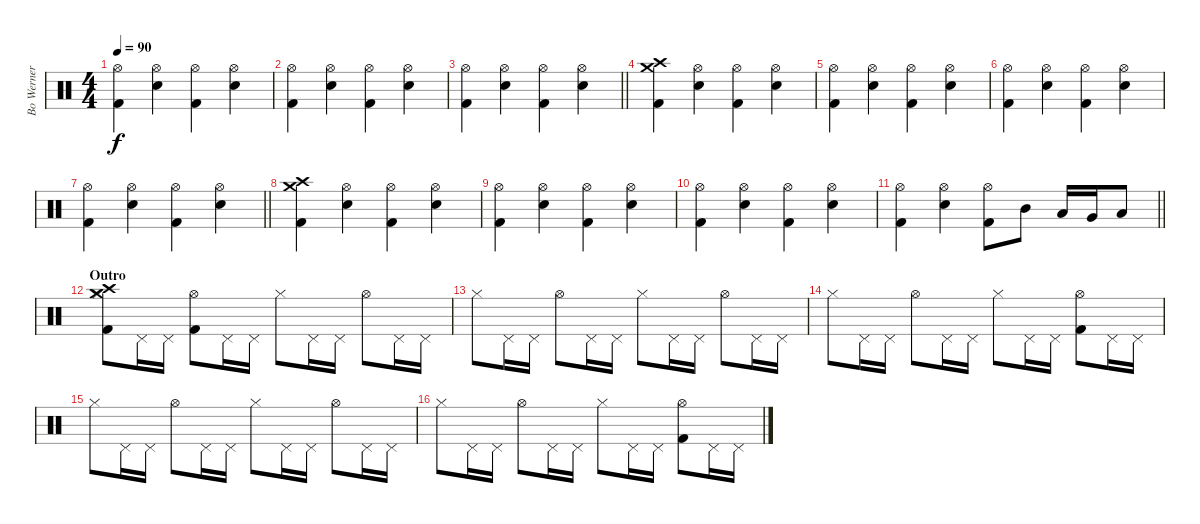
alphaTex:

\track ("Bo Werner" "Bo Werner") {instrument percussion}
\staff {score}
\articulation defaults
\ts (4 4)
\tempo 90
\clef neutral
\ks c
("Hi-Hat (open)" "Kick (hit) 2").4{dy f} ("Hi-Hat (open)" "Snare (hit) 2").4 ("Hi-Hat (open)" "Kick (hit) 2").4 ("Hi-Hat (open)" "Snare (hit) 2").4 |
("Hi-Hat (open)" "Kick (hit) 2").4 ("Hi-Hat (open)" "Snare (hit) 2").4 ("Hi-Hat (open)" "Kick (hit) 2").4 ("Hi-Hat (open)" "Snare (hit) 2").4 |
\barLineRight lightlight
("Hi-Hat (open)" "Kick (hit) 2").4 ("Hi-Hat (open)" "Snare (hit) 2").4 ("Hi-Hat (open)" "Kick (hit) 2").4 ("Hi-Hat (open)" "Snare (hit) 2").4 |
("Crash medium (hit)" "Crash high (hit)" "Kick (hit) 2").4 ("Hi-Hat (open)" "Snare (hit) 2").4 ("Hi-Hat (open)" "Kick (hit) 2").4 ("Hi-Hat (open)" "Snare (hit) 2").4 |
("Hi-Hat (open)" "Kick (hit) 2").4 ("Hi-Hat (open)" "Snare (hit) 2").4 ("Hi-Hat (open)" "Kick (hit) 2").4 ("Hi-Hat (open)" "Snare (hit) 2").4 |
("Hi-Hat (open)" "Kick (hit) 2").4 ("Hi-Hat (open)" "Snare (hit) 2").4 ("Hi-Hat (open)" "Kick (hit) 2").4 ("Hi-Hat (open)" "Snare (hit) 2").4 |
\barLineRight lightlight
("Hi-Hat (open)" "Kick (hit) 2").4 ("Hi-Hat (open)" "Snare (hit) 2").4 ("Hi-Hat (open)" "Kick (hit) 2").4 ("Hi-Hat (open)" "Snare (hit) 2").4 |
("Crash medium (hit)" "Crash high (hit)" "Kick (hit) 2").4 ("Hi-Hat (open)" "Snare (hit) 2").4 ("Hi-Hat (open)" "Kick (hit) 2").4 ("Hi-Hat (open)" "Snare (hit) 2").4 |
("Hi-Hat (open)" "Kick (hit) 2").4 ("Hi-Hat (open)" "Snare (hit) 2").4 ("Hi-Hat (open)" "Kick (hit) 2").4 ("Hi-Hat (open)" "Snare (hit) 2").4 |
("Hi-Hat (open)" "Kick (hit) 2").4 ("Hi-Hat (open)" "Snare (hit) 2").4 ("Hi-Hat (open)" "Kick (hit) 2").4 ("Hi-Hat (open)" "Snare (hit) 2").4 |
\barLineRight lightlight
("Hi-Hat (open)" "Kick (hit) 2").4 ("Hi-Hat (open)" "Snare (hit) 2").4 ("Hi-Hat (open)" "Kick (hit) 2").8 "Mid Tom (hit)".8 "Low Tom (hit)".16 "Very Low Tom (hit)".16 "Low Floor Tom (hit)".8 |
\section ("" "Outro")
("Crash medium (hit)" "Crash high (hit)" "Hi-Hat (closed)" "Kick (hit) 2").8 "Pedal Hi-Hat (hit)".16 "Pedal Hi-Hat (hit)".16 ("Hi-Hat (open)" "Kick (hit) 2").8 "Pedal Hi-Hat (hit)".16 "Pedal Hi-Hat (hit)".16 "Hi-Hat (closed)".8 "Pedal Hi-Hat (hit)".16 "Pedal Hi-Hat (hit)".16 "Hi-Hat (open)".8 "Pedal Hi-Hat (hit)".16 "Pedal Hi-Hat (hit)".16 |
"Hi-Hat (closed)".8 "Pedal Hi-Hat (hit)".16 "Pedal Hi-Hat (hit)".16 "Hi-Hat (open)".8 "Pedal Hi-Hat (hit)".16 "Pedal Hi-Hat (hit)".16 "Hi-Hat (closed)".8 "Pedal Hi-Hat (hit)".16 "Pedal Hi-Hat (hit)".16 "Hi-Hat (open)".8 "Pedal Hi-Hat (hit)".16 "Pedal Hi-Hat (hit)".16 |
"Hi-Hat (closed)".8 "Pedal Hi-Hat (hit)".16 "Pedal Hi-Hat (hit)".16 "Hi-Hat (open)".8 "Pedal Hi-Hat (hit)".16 "Pedal Hi-Hat (hit)".16 "Hi-Hat (closed)".8 "Pedal Hi-Hat (hit)".16 "Pedal Hi-Hat (hit)".16 ("Hi-Hat (open)" "Kick (hit) 2").8 "Pedal Hi-Hat (hit)".16 "Pedal Hi-Hat (hit)".16 |
"Hi-Hat (closed)".8 "Pedal Hi-Hat (hit)".16 "Pedal Hi-Hat (hit)".16 "Hi-Hat (open)".8 "Pedal Hi-Hat (hit)".16 "Pedal Hi-Hat (hit)".16 "Hi-Hat (closed)".8 "Pedal Hi-Hat (hit)".16 "Pedal Hi-Hat (hit)".16 "Hi-Hat (open)".8 "Pedal Hi-Hat (hit)".16 "Pedal Hi-Hat (hit)".16 |
"Hi-Hat (closed)".8 "Pedal Hi-Hat (hit)".16 "Pedal Hi-Hat (hit)".16 "Hi-Hat (open)".8 "Pedal Hi-Hat (hit)".16 "Pedal Hi-Hat (hit)".16 "Hi-Hat (closed)".8 "Pedal Hi-Hat (hit)".16 "Pedal Hi-Hat (hit)".16 ("Hi-Hat (open)" "Kick (hit) 2").8 "Pedal Hi-Hat (hit)".16 "Pedal Hi-Hat (hit)".16
